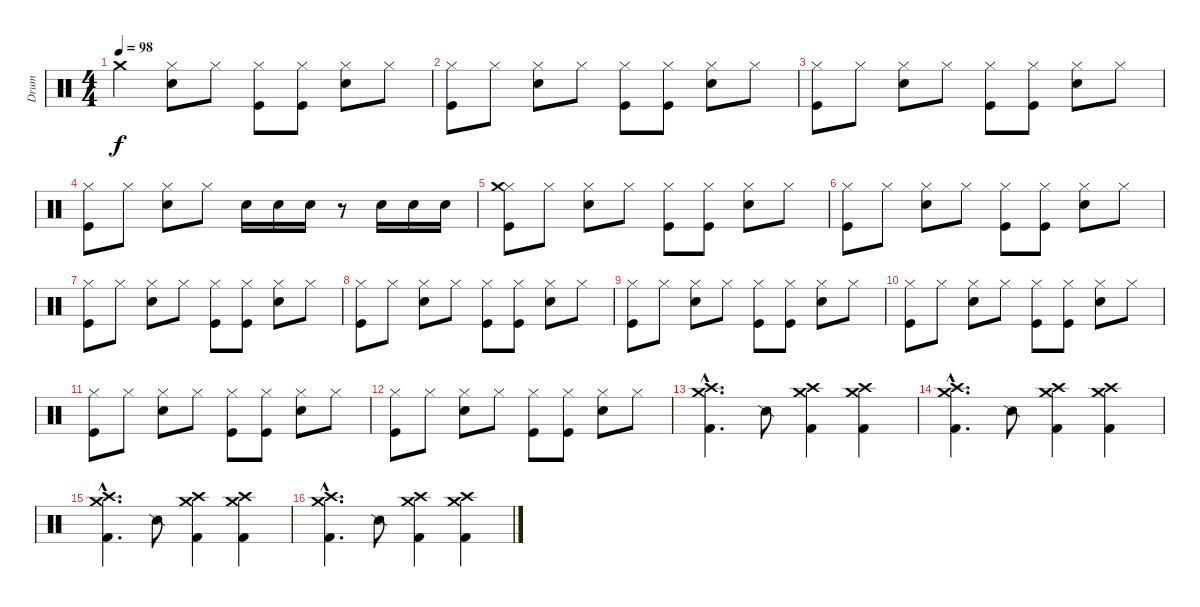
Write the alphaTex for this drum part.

\track ("Drum" "Drum") {instrument percussion}
\staff {score}
\articulation defaults
\ts (4 4)
\tempo 98
\clef neutral
\ks c "Crash medium (hit)".4{dy f}
("Hi-Hat (closed)" "Electric Snare (hit)").8 "Hi-Hat (closed)".8 ("Hi-Hat (closed)" "Kick (hit)").8 ("Hi-Hat (closed)" "Kick (hit)").8 ("Hi-Hat (closed)" "Electric Snare (hit)").8 "Hi-Hat (closed)".8 |
("Hi-Hat (closed)" "Kick (hit)").8 "Hi-Hat (closed)".8 ("Hi-Hat (closed)" "Electric Snare (hit)").8 "Hi-Hat (closed)".8 ("Hi-Hat (closed)" "Kick (hit)").8 ("Hi-Hat (closed)" "Kick (hit)").8 ("Hi-Hat (closed)" "Electric Snare (hit)").8 "Hi-Hat (closed)".8 |
("Hi-Hat (closed)" "Kick (hit)").8 "Hi-Hat (closed)".8 ("Hi-Hat (closed)" "Electric Snare (hit)").8 "Hi-Hat (closed)".8 ("Hi-Hat (closed)" "Kick (hit)").8 ("Hi-Hat (closed)" "Kick (hit)").8 ("Hi-Hat (closed)" "Electric Snare (hit)").8 "Hi-Hat (closed)".8 |
("Hi-Hat (closed)" "Kick (hit)").8 "Hi-Hat (closed)".8 ("Hi-Hat (closed)" "Electric Snare (hit)").8 "Hi-Hat (closed)".8 "Electric Snare (hit)".16 "Electric Snare (hit)".16 "Electric Snare (hit)".16 r.8 "Electric Snare (hit)".16 "Electric Snare (hit)".16 "Electric Snare (hit)".16 |
("Hi-Hat (closed)" "Kick (hit)" "Crash medium (hit)").8 "Hi-Hat (closed)".8 ("Hi-Hat (closed)" "Snare (hit) 2").8 "Hi-Hat (closed)".8 ("Hi-Hat (closed)" "Kick (hit)").8 ("Hi-Hat (closed)" "Kick (hit)").8 ("Hi-Hat (closed)" "Snare (hit) 2").8 "Hi-Hat (closed)".8 |
("Hi-Hat (closed)" "Kick (hit)").8 "Hi-Hat (closed)".8 ("Hi-Hat (closed)" "Snare (hit) 2").8 "Hi-Hat (closed)".8 ("Hi-Hat (closed)" "Kick (hit)").8 ("Hi-Hat (closed)" "Kick (hit)").8 ("Hi-Hat (closed)" "Snare (hit) 2").8 "Hi-Hat (closed)".8 |
("Hi-Hat (closed)" "Kick (hit)").8 "Hi-Hat (closed)".8 ("Hi-Hat (closed)" "Snare (hit) 2").8 "Hi-Hat (closed)".8 ("Hi-Hat (closed)" "Kick (hit)").8 ("Hi-Hat (closed)" "Kick (hit)").8 ("Hi-Hat (closed)" "Snare (hit) 2").8 "Hi-Hat (closed)".8 |
("Hi-Hat (closed)" "Kick (hit)").8 "Hi-Hat (closed)".8 ("Hi-Hat (closed)" "Snare (hit) 2").8 "Hi-Hat (closed)".8 ("Hi-Hat (closed)" "Kick (hit)").8 ("Hi-Hat (closed)" "Kick (hit)").8 ("Hi-Hat (closed)" "Snare (hit) 2").8 "Hi-Hat (closed)".8 |
("Hi-Hat (closed)" "Kick (hit)").8 "Hi-Hat (closed)".8 ("Hi-Hat (closed)" "Snare (hit) 2").8 "Hi-Hat (closed)".8 ("Hi-Hat (closed)" "Kick (hit)").8 ("Hi-Hat (closed)" "Kick (hit)").8 ("Hi-Hat (closed)" "Snare (hit) 2").8 "Hi-Hat (closed)".8 |
("Hi-Hat (closed)" "Kick (hit)").8 "Hi-Hat (closed)".8 ("Hi-Hat (closed)" "Snare (hit) 2").8 "Hi-Hat (closed)".8 ("Hi-Hat (closed)" "Kick (hit)").8 ("Hi-Hat (closed)" "Kick (hit)").8 ("Hi-Hat (closed)" "Snare (hit) 2").8 "Hi-Hat (closed)".8 |
("Hi-Hat (closed)" "Kick (hit)").8 "Hi-Hat (closed)".8 ("Hi-Hat (closed)" "Snare (hit) 2").8 "Hi-Hat (closed)".8 ("Hi-Hat (closed)" "Kick (hit)").8 ("Hi-Hat (closed)" "Kick (hit)").8 ("Hi-Hat (closed)" "Snare (hit) 2").8 "Hi-Hat (closed)".8 |
("Hi-Hat (closed)" "Kick (hit)").8 "Hi-Hat (closed)".8 ("Hi-Hat (closed)" "Snare (hit) 2").8 "Hi-Hat (closed)".8 ("Hi-Hat (closed)" "Kick (hit)").8 ("Hi-Hat (closed)" "Kick (hit)").8 ("Hi-Hat (closed)" "Snare (hit) 2").8 "Hi-Hat (closed)".8 |
("Crash medium (hit)"{hac} "Kick (hit) 2"{hac} "Crash high (hit)"{hac}).4{d} "Snare (side stick) 2".8 ("Crash medium (hit)" "Kick (hit) 2" "Crash high (hit)").4 ("Crash medium (hit)" "Kick (hit) 2" "Crash high (hit)").4 |
("Crash medium (hit)"{hac} "Kick (hit) 2"{hac} "Crash high (hit)"{hac}).4{d} "Snare (side stick) 2".8 ("Crash medium (hit)" "Kick (hit) 2" "Crash high (hit)").4 ("Crash medium (hit)" "Kick (hit) 2" "Crash high (hit)").4 |
("Crash medium (hit)"{hac} "Kick (hit) 2"{hac} "Crash high (hit)"{hac}).4{d} "Snare (side stick) 2".8 ("Crash medium (hit)" "Kick (hit) 2" "Crash high (hit)").4 ("Crash medium (hit)" "Kick (hit) 2" "Crash high (hit)").4 |
("Crash medium (hit)"{hac} "Kick (hit) 2"{hac} "Crash high (hit)"{hac}).4{d} "Snare (side stick) 2".8 ("Crash medium (hit)" "Kick (hit) 2" "Crash high (hit)").4 ("Crash medium (hit)" "Kick (hit) 2" "Crash high (hit)").4
